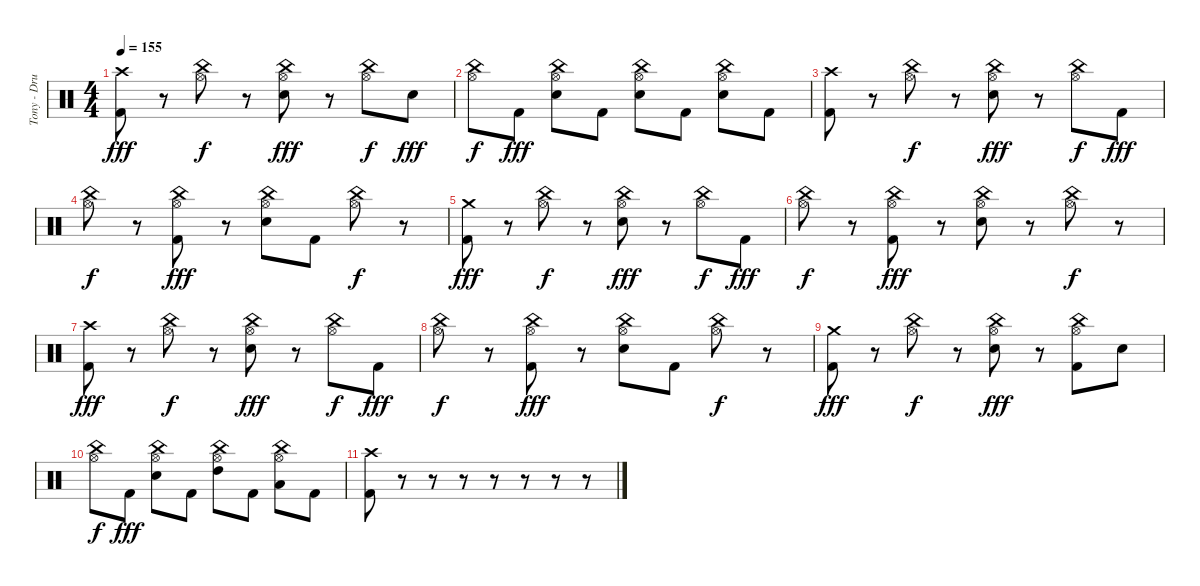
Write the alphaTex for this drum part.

\track ("Tony - Drums" "Tony - Dru") {instrument percussion}
\staff {score}
\articulation defaults
\ts (4 4)
\tempo 155
\clef neutral
\ks c
("Crash high (hit)" "Kick (hit) 2").8{dy fff} r.8 ("Hi-Hat (open)" "China (hit)").8{dy f} r.8 ("Hi-Hat (open)" "China (hit)" "Electric Snare (hit)").8{dy fff} r.8 ("Hi-Hat (open)" "China (hit)").8{dy f} "Electric Snare (hit)".8{dy fff} |
("Hi-Hat (open)" "China (hit)").8{dy f} "Kick (hit) 2".8{dy fff} ("Hi-Hat (open)" "China (hit)" "Electric Snare (hit)").8 "Kick (hit) 2".8 ("Hi-Hat (open)" "China (hit)" "Electric Snare (hit)").8 "Kick (hit) 2".8 ("Hi-Hat (open)" "China (hit)" "Electric Snare (hit)").8 "Kick (hit) 2".8 |
("Crash high (hit)" "Kick (hit) 2").8 r.8 ("Hi-Hat (open)" "China (hit)").8{dy f} r.8 ("Hi-Hat (open)" "China (hit)" "Electric Snare (hit)").8{dy fff} r.8 ("Hi-Hat (open)" "China (hit)").8{dy f} "Kick (hit) 2".8{dy fff} |
("Hi-Hat (open)" "China (hit)").8{dy f} r.8 ("Hi-Hat (open)" "China (hit)" "Kick (hit) 2").8{dy fff} r.8 ("Hi-Hat (open)" "China (hit)" "Electric Snare (hit)").8 "Kick (hit) 2".8 ("Hi-Hat (open)" "China (hit)").8{dy f} r.8 |
("Crash medium (hit)" "Kick (hit) 2").8{dy fff} r.8 ("Hi-Hat (open)" "China (hit)").8{dy f} r.8 ("Hi-Hat (open)" "China (hit)" "Electric Snare (hit)").8{dy fff} r.8 ("Hi-Hat (open)" "China (hit)").8{dy f} "Kick (hit) 2".8{dy fff} |
("Hi-Hat (open)" "China (hit)").8{dy f} r.8 ("Hi-Hat (open)" "China (hit)" "Kick (hit) 2").8{dy fff} r.8 ("Hi-Hat (open)" "China (hit)" "Electric Snare (hit)").8 r.8 ("Hi-Hat (open)" "China (hit)").8{dy f} r.8 |
("Crash high (hit)" "Kick (hit) 2").8{dy fff} r.8 ("Hi-Hat (open)" "China (hit)").8{dy f} r.8 ("Hi-Hat (open)" "China (hit)" "Electric Snare (hit)").8{dy fff} r.8 ("Hi-Hat (open)" "China (hit)").8{dy f} "Kick (hit) 2".8{dy fff} |
("Hi-Hat (open)" "China (hit)").8{dy f} r.8 ("Hi-Hat (open)" "China (hit)" "Kick (hit) 2").8{dy fff} r.8 ("Hi-Hat (open)" "China (hit)" "Electric Snare (hit)").8 "Kick (hit) 2".8 ("Hi-Hat (open)" "China (hit)").8{dy f} r.8 |
("Crash medium (hit)" "Kick (hit) 2").8{dy fff} r.8 ("Hi-Hat (open)" "China (hit)").8{dy f} r.8 ("Hi-Hat (open)" "China (hit)" "Electric Snare (hit)").8{dy fff} r.8 ("Hi-Hat (open)" "China (hit)" "Kick (hit) 2").8 "Electric Snare (hit)".8 |
("Hi-Hat (open)" "China (hit)").8{dy f} "Kick (hit) 2".8{dy fff} ("Hi-Hat (open)" "China (hit)" "Electric Snare (hit)").8 "Kick (hit) 2".8 ("Hi-Hat (open)" "China (hit)" "High Tom (hit)").8 "Kick (hit) 2".8 ("Hi-Hat (open)" "China (hit)" "Low Tom (hit)").8 "Kick (hit) 2".8 |
("Crash high (hit)" "Kick (hit) 2").8 r.8 r.8 r.8 r.8 r.8 r.8 r.8
